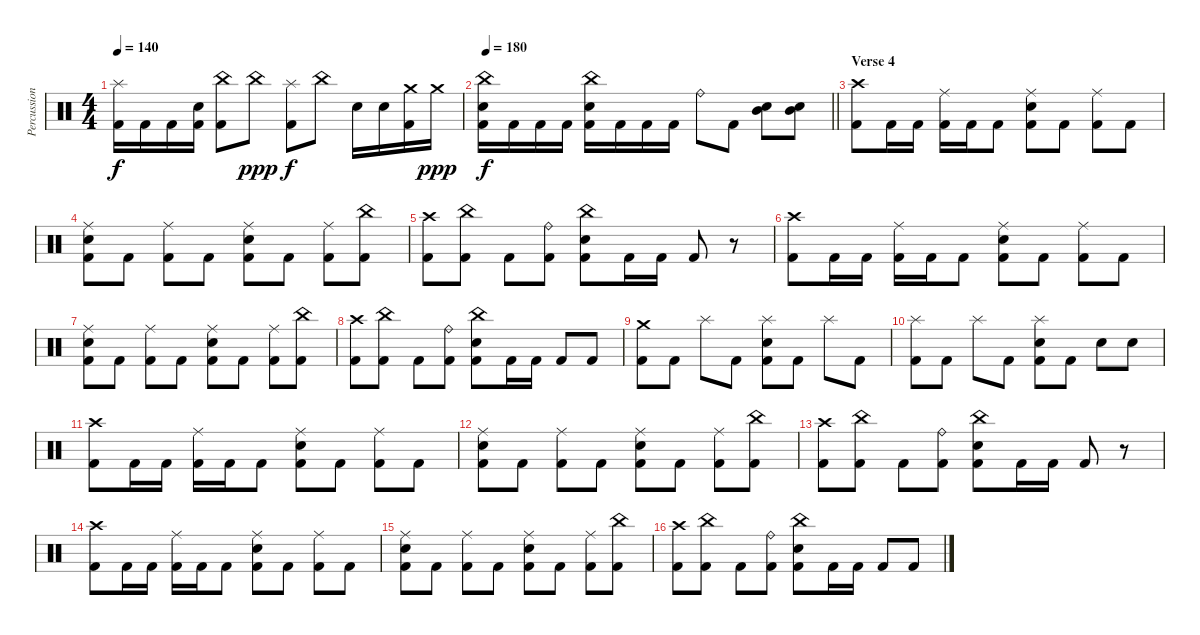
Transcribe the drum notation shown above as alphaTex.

\track ("Percussion" "Percussion") {instrument percussion}
\staff {score}
\articulation defaults
\ts (4 4)
\tempo 140
\clef neutral
\ks c
("Splash (hit)" "Kick (hit) 2").16{dy f} "Kick (hit) 2".16 "Kick (hit) 2".16 ("Electric Snare (hit)" "Kick (hit) 2").16 ("China (hit)" "Kick (hit) 2").8 "China (hit)".8{dy ppp} ("Splash (hit)" "Kick (hit) 2").8{dy f} "China (hit)".8 "Electric Snare (hit)".16 "Electric Snare (hit)".16 ("Crash medium (hit)" "Kick (hit) 2").16 "Crash medium (hit)".16{dy ppp} |
\tempo 180
\barLineRight lightlight
("China (hit)" "Electric Snare (hit)" "Kick (hit) 2").16{dy f} "Kick (hit) 2".16 "Kick (hit) 2".16 "Kick (hit) 2".16 ("China (hit)" "Electric Snare (hit)" "Kick (hit) 2").16 "Kick (hit) 2".16 "Kick (hit) 2".16 "Kick (hit) 2".16 "Ride (bell)".8 "Kick (hit) 2".8 ("Mid Tom (hit)" "Electric Snare (hit)").8 ("Mid Tom (hit)" "Electric Snare (hit)").8 |
\section ("" "Verse 4")
("Crash high (hit)" "Kick (hit) 2").8 "Kick (hit) 2".16 "Kick (hit) 2".16 ("Ride (middle)" "Kick (hit) 2").16 "Kick (hit) 2".16 "Kick (hit) 2".8 ("Ride (middle)" "Electric Snare (hit)" "Kick (hit) 2").8 "Kick (hit) 2".8 ("Ride (middle)" "Kick (hit) 2").8 "Kick (hit) 2".8 |
("Ride (middle)" "Electric Snare (hit)" "Kick (hit) 2").8 "Kick (hit) 2".8 ("Ride (middle)" "Kick (hit) 2").8 "Kick (hit) 2".8 ("Ride (middle)" "Electric Snare (hit)" "Kick (hit) 2").8 "Kick (hit) 2".8 ("Ride (middle)" "Kick (hit) 2").8 ("China (hit)" "Kick (hit) 2").8 |
("Crash high (hit)" "Kick (hit) 2").8 ("China (hit)" "Kick (hit) 2").8 "Kick (hit) 2".8 ("Ride (bell)" "Kick (hit) 2").8 ("China (hit)" "Electric Snare (hit)" "Kick (hit) 2").8 "Kick (hit) 2".16 "Kick (hit) 2".16 "Kick (hit) 2".8 r.8 |
("Crash high (hit)" "Kick (hit) 2").8 "Kick (hit) 2".16 "Kick (hit) 2".16 ("Ride (middle)" "Kick (hit) 2").16 "Kick (hit) 2".16 "Kick (hit) 2".8 ("Ride (middle)" "Electric Snare (hit)" "Kick (hit) 2").8 "Kick (hit) 2".8 ("Ride (middle)" "Kick (hit) 2").8 "Kick (hit) 2".8 |
("Ride (middle)" "Electric Snare (hit)" "Kick (hit) 2").8 "Kick (hit) 2".8 ("Ride (middle)" "Kick (hit) 2").8 "Kick (hit) 2".8 ("Ride (middle)" "Electric Snare (hit)" "Kick (hit) 2").8 "Kick (hit) 2".8 ("Ride (middle)" "Kick (hit) 2").8 ("China (hit)" "Kick (hit) 2").8 |
("Crash high (hit)" "Kick (hit) 2").8 ("China (hit)" "Kick (hit) 2").8 "Kick (hit) 2".8 ("Ride (bell)" "Kick (hit) 2").8 ("China (hit)" "Electric Snare (hit)" "Kick (hit) 2").8 "Kick (hit) 2".16 "Kick (hit) 2".16 "Kick (hit) 2".8 "Kick (hit) 2".8 |
("Crash medium (hit)" "Kick (hit) 2").8 "Kick (hit) 2".8 "Splash (hit)".8 "Kick (hit) 2".8 ("Splash (hit)" "Electric Snare (hit)" "Kick (hit) 2").8 "Kick (hit) 2".8 "Splash (hit)".8 "Kick (hit) 2".8 |
("Splash (hit)" "Kick (hit) 2").8 "Kick (hit) 2".8 "Splash (hit)".8 "Kick (hit) 2".8 ("Splash (hit)" "Electric Snare (hit)" "Kick (hit) 2").8 "Kick (hit) 2".8 "Electric Snare (hit)".8 "Electric Snare (hit)".8 |
("Crash high (hit)" "Kick (hit) 2").8 "Kick (hit) 2".16 "Kick (hit) 2".16 ("Ride (middle)" "Kick (hit) 2").16 "Kick (hit) 2".16 "Kick (hit) 2".8 ("Ride (middle)" "Electric Snare (hit)" "Kick (hit) 2").8 "Kick (hit) 2".8 ("Ride (middle)" "Kick (hit) 2").8 "Kick (hit) 2".8 |
("Ride (middle)" "Electric Snare (hit)" "Kick (hit) 2").8 "Kick (hit) 2".8 ("Ride (middle)" "Kick (hit) 2").8 "Kick (hit) 2".8 ("Ride (middle)" "Electric Snare (hit)" "Kick (hit) 2").8 "Kick (hit) 2".8 ("Ride (middle)" "Kick (hit) 2").8 ("China (hit)" "Kick (hit) 2").8 |
("Crash high (hit)" "Kick (hit) 2").8 ("China (hit)" "Kick (hit) 2").8 "Kick (hit) 2".8 ("Ride (bell)" "Kick (hit) 2").8 ("China (hit)" "Electric Snare (hit)" "Kick (hit) 2").8 "Kick (hit) 2".16 "Kick (hit) 2".16 "Kick (hit) 2".8 r.8 |
("Crash high (hit)" "Kick (hit) 2").8 "Kick (hit) 2".16 "Kick (hit) 2".16 ("Ride (middle)" "Kick (hit) 2").16 "Kick (hit) 2".16 "Kick (hit) 2".8 ("Ride (middle)" "Electric Snare (hit)" "Kick (hit) 2").8 "Kick (hit) 2".8 ("Ride (middle)" "Kick (hit) 2").8 "Kick (hit) 2".8 |
("Ride (middle)" "Electric Snare (hit)" "Kick (hit) 2").8 "Kick (hit) 2".8 ("Ride (middle)" "Kick (hit) 2").8 "Kick (hit) 2".8 ("Ride (middle)" "Electric Snare (hit)" "Kick (hit) 2").8 "Kick (hit) 2".8 ("Ride (middle)" "Kick (hit) 2").8 ("China (hit)" "Kick (hit) 2").8 |
("Crash high (hit)" "Kick (hit) 2").8 ("China (hit)" "Kick (hit) 2").8 "Kick (hit) 2".8 ("Ride (bell)" "Kick (hit) 2").8 ("China (hit)" "Electric Snare (hit)" "Kick (hit) 2").8 "Kick (hit) 2".16 "Kick (hit) 2".16 "Kick (hit) 2".8 "Kick (hit) 2".8
